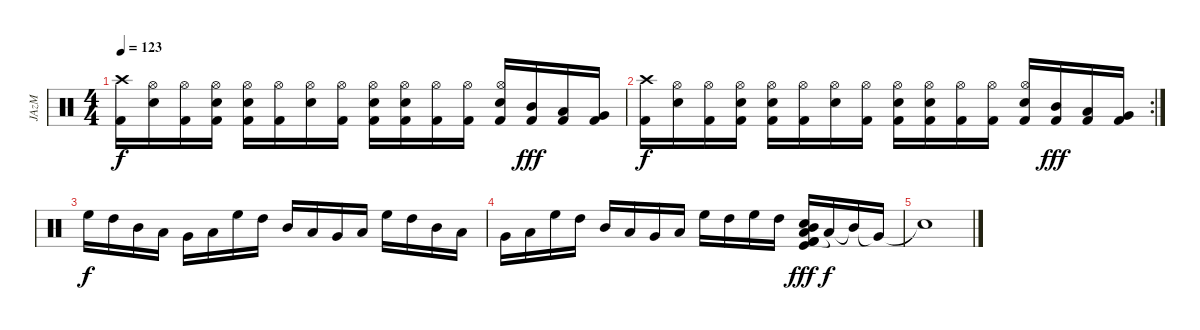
\track ("JAzM" "JAzM") {instrument percussion}
\staff {score}
\articulation defaults
\ts (4 4)
\tempo 123
\clef neutral
\ks c
("Crash high (hit)" "Kick (hit) 2").16{dy f} ("Hi-Hat (open)" "Electric Snare (hit)").16 ("Hi-Hat (open)" "Kick (hit) 2").16 ("Hi-Hat (open)" "Electric Snare (hit)" "Kick (hit) 2").16 ("Hi-Hat (open)" "Electric Snare (hit)" "Kick (hit) 2").16 ("Hi-Hat (open)" "Kick (hit) 2").16 ("Hi-Hat (open)" "Electric Snare (hit)").16 ("Hi-Hat (open)" "Kick (hit) 2").16 ("Hi-Hat (open)" "Electric Snare (hit)" "Kick (hit) 2").16 ("Hi-Hat (open)" "Electric Snare (hit)" "Kick (hit) 2").16 ("Hi-Hat (open)" "Kick (hit) 2").16 ("Hi-Hat (open)" "Kick (hit) 2").16 ("Hi-Hat (open)" "Electric Snare (hit)" "Kick (hit) 2").16 ("Mid Tom (hit)" "Kick (hit) 2").16{dy fff} ("Low Tom (hit)" "Kick (hit) 2").16 ("Very Low Tom (hit)" "Kick (hit) 2").16 |
\rc 2
("Crash high (hit)" "Kick (hit) 2").16{dy f} ("Hi-Hat (open)" "Electric Snare (hit)").16 ("Hi-Hat (open)" "Kick (hit) 2").16 ("Hi-Hat (open)" "Electric Snare (hit)" "Kick (hit) 2").16 ("Hi-Hat (open)" "Electric Snare (hit)" "Kick (hit) 2").16 ("Hi-Hat (open)" "Kick (hit) 2").16 ("Hi-Hat (open)" "Electric Snare (hit)").16 ("Hi-Hat (open)" "Kick (hit) 2").16 ("Hi-Hat (open)" "Electric Snare (hit)" "Kick (hit) 2").16 ("Hi-Hat (open)" "Electric Snare (hit)" "Kick (hit) 2").16 ("Hi-Hat (open)" "Kick (hit) 2").16 ("Hi-Hat (open)" "Kick (hit) 2").16 ("Hi-Hat (open)" "Electric Snare (hit)" "Kick (hit) 2").16 ("Mid Tom (hit)" "Kick (hit) 2").16{dy fff} ("Low Tom (hit)" "Kick (hit) 2").16 ("Very Low Tom (hit)" "Kick (hit) 2").16 |
"High Floor Tom (hit)".16{dy f} "High Tom (hit)".16 "Mid Tom (hit)".16 "Low Tom (hit)".16 "Very Low Tom (hit)".16 "Low Floor Tom (hit)".16 "High Floor Tom (hit)".16 "High Tom (hit)".16 "Mid Tom (hit)".16 "Low Tom (hit)".16 "Very Low Tom (hit)".16 "Low Floor Tom (hit)".16 "High Floor Tom (hit)".16 "High Tom (hit)".16 "Mid Tom (hit)".16 "Low Tom (hit)".16 |
"Very Low Tom (hit)".16 "Low Floor Tom (hit)".16 "High Floor Tom (hit)".16 "High Tom (hit)".16 "Mid Tom (hit)".16 "Low Tom (hit)".16 "Very Low Tom (hit)".16 "Low Floor Tom (hit)".16 "High Floor Tom (hit)".16 "High Tom (hit)".16 "High Floor Tom (hit)".16 "High Tom (hit)".16 ("Kick (hit) 2" "Kick (hit)" "Kick (hit) 2" "Low Tom (hit)" "Mid Tom (hit)" "Electric Snare (hit)").16{dy fff} "Low Tom (hit)"{t}.16{dy f} "Mid Tom (hit)"{t}.16 "Very Low Tom (hit)"{t}.16 |
"Snare (hit)"{t}.1
